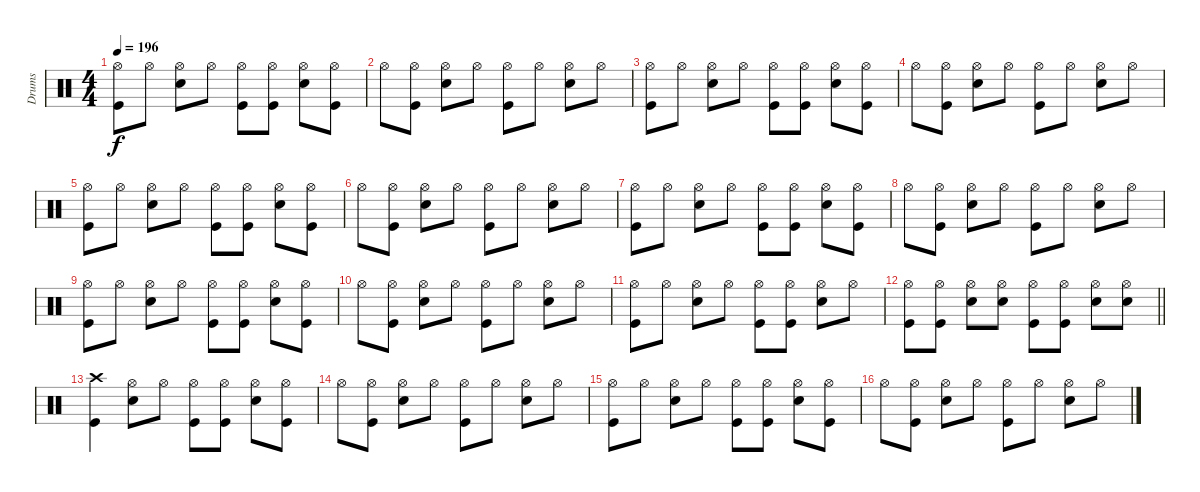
\track ("Drums" "Drums") {instrument percussion}
\staff {score}
\articulation defaults
\ts (4 4)
\tempo 196
\clef neutral
\ks c
("Hi-Hat (open)" "Kick (hit)").8{dy f} "Hi-Hat (open)".8 ("Hi-Hat (open)" "Electric Snare (hit)").8 "Hi-Hat (open)".8 ("Hi-Hat (open)" "Kick (hit)").8 ("Hi-Hat (open)" "Kick (hit)").8 ("Hi-Hat (open)" "Electric Snare (hit)").8 ("Hi-Hat (open)" "Kick (hit)").8 |
"Hi-Hat (open)".8 ("Hi-Hat (open)" "Kick (hit)").8 ("Hi-Hat (open)" "Electric Snare (hit)").8 "Hi-Hat (open)".8 ("Hi-Hat (open)" "Kick (hit)").8 "Hi-Hat (open)".8 ("Hi-Hat (open)" "Electric Snare (hit)").8 "Hi-Hat (open)".8 |
("Hi-Hat (open)" "Kick (hit)").8 "Hi-Hat (open)".8 ("Hi-Hat (open)" "Electric Snare (hit)").8 "Hi-Hat (open)".8 ("Hi-Hat (open)" "Kick (hit)").8 ("Hi-Hat (open)" "Kick (hit)").8 ("Hi-Hat (open)" "Electric Snare (hit)").8 ("Hi-Hat (open)" "Kick (hit)").8 |
"Hi-Hat (open)".8 ("Hi-Hat (open)" "Kick (hit)").8 ("Hi-Hat (open)" "Electric Snare (hit)").8 "Hi-Hat (open)".8 ("Hi-Hat (open)" "Kick (hit)").8 "Hi-Hat (open)".8 ("Hi-Hat (open)" "Electric Snare (hit)").8 "Hi-Hat (open)".8 |
("Hi-Hat (open)" "Kick (hit)").8 "Hi-Hat (open)".8 ("Hi-Hat (open)" "Electric Snare (hit)").8 "Hi-Hat (open)".8 ("Hi-Hat (open)" "Kick (hit)").8 ("Hi-Hat (open)" "Kick (hit)").8 ("Hi-Hat (open)" "Electric Snare (hit)").8 ("Hi-Hat (open)" "Kick (hit)").8 |
"Hi-Hat (open)".8 ("Hi-Hat (open)" "Kick (hit)").8 ("Hi-Hat (open)" "Electric Snare (hit)").8 "Hi-Hat (open)".8 ("Hi-Hat (open)" "Kick (hit)").8 "Hi-Hat (open)".8 ("Hi-Hat (open)" "Electric Snare (hit)").8 "Hi-Hat (open)".8 |
("Hi-Hat (open)" "Kick (hit)").8 "Hi-Hat (open)".8 ("Hi-Hat (open)" "Electric Snare (hit)").8 "Hi-Hat (open)".8 ("Hi-Hat (open)" "Kick (hit)").8 ("Hi-Hat (open)" "Kick (hit)").8 ("Hi-Hat (open)" "Electric Snare (hit)").8 ("Hi-Hat (open)" "Kick (hit)").8 |
"Hi-Hat (open)".8 ("Hi-Hat (open)" "Kick (hit)").8 ("Hi-Hat (open)" "Electric Snare (hit)").8 "Hi-Hat (open)".8 ("Hi-Hat (open)" "Kick (hit)").8 "Hi-Hat (open)".8 ("Hi-Hat (open)" "Electric Snare (hit)").8 "Hi-Hat (open)".8 |
("Hi-Hat (open)" "Kick (hit)").8 "Hi-Hat (open)".8 ("Hi-Hat (open)" "Electric Snare (hit)").8 "Hi-Hat (open)".8 ("Hi-Hat (open)" "Kick (hit)").8 ("Hi-Hat (open)" "Kick (hit)").8 ("Hi-Hat (open)" "Electric Snare (hit)").8 ("Hi-Hat (open)" "Kick (hit)").8 |
"Hi-Hat (open)".8 ("Hi-Hat (open)" "Kick (hit)").8 ("Hi-Hat (open)" "Electric Snare (hit)").8 "Hi-Hat (open)".8 ("Hi-Hat (open)" "Kick (hit)").8 "Hi-Hat (open)".8 ("Hi-Hat (open)" "Electric Snare (hit)").8 "Hi-Hat (open)".8 |
("Hi-Hat (open)" "Kick (hit)").8 "Hi-Hat (open)".8 ("Hi-Hat (open)" "Electric Snare (hit)").8 "Hi-Hat (open)".8 ("Hi-Hat (open)" "Kick (hit)").8 ("Hi-Hat (open)" "Kick (hit)").8 ("Hi-Hat (open)" "Electric Snare (hit)").8 "Hi-Hat (open)".8 |
\barLineRight lightlight
("Hi-Hat (open)" "Kick (hit)").8 ("Hi-Hat (open)" "Kick (hit)").8 ("Hi-Hat (open)" "Electric Snare (hit)").8 ("Hi-Hat (open)" "Electric Snare (hit)").8 ("Hi-Hat (open)" "Kick (hit)").8 ("Hi-Hat (open)" "Kick (hit)").8 ("Hi-Hat (open)" "Electric Snare (hit)").8 ("Hi-Hat (open)" "Electric Snare (hit)").8 |
("Crash high (hit)" "Kick (hit)").4 ("Hi-Hat (open)" "Electric Snare (hit)").8 "Hi-Hat (open)".8 ("Hi-Hat (open)" "Kick (hit)").8 ("Hi-Hat (open)" "Kick (hit)").8 ("Hi-Hat (open)" "Electric Snare (hit)").8 ("Hi-Hat (open)" "Kick (hit)").8 |
"Hi-Hat (open)".8 ("Hi-Hat (open)" "Kick (hit)").8 ("Hi-Hat (open)" "Electric Snare (hit)").8 "Hi-Hat (open)".8 ("Hi-Hat (open)" "Kick (hit)").8 "Hi-Hat (open)".8 ("Hi-Hat (open)" "Electric Snare (hit)").8 "Hi-Hat (open)".8 |
("Hi-Hat (open)" "Kick (hit)").8 "Hi-Hat (open)".8 ("Hi-Hat (open)" "Electric Snare (hit)").8 "Hi-Hat (open)".8 ("Hi-Hat (open)" "Kick (hit)").8 ("Hi-Hat (open)" "Kick (hit)").8 ("Hi-Hat (open)" "Electric Snare (hit)").8 ("Hi-Hat (open)" "Kick (hit)").8 |
"Hi-Hat (open)".8 ("Hi-Hat (open)" "Kick (hit)").8 ("Hi-Hat (open)" "Electric Snare (hit)").8 "Hi-Hat (open)".8 ("Hi-Hat (open)" "Kick (hit)").8 "Hi-Hat (open)".8 ("Hi-Hat (open)" "Electric Snare (hit)").8 "Hi-Hat (open)".8
